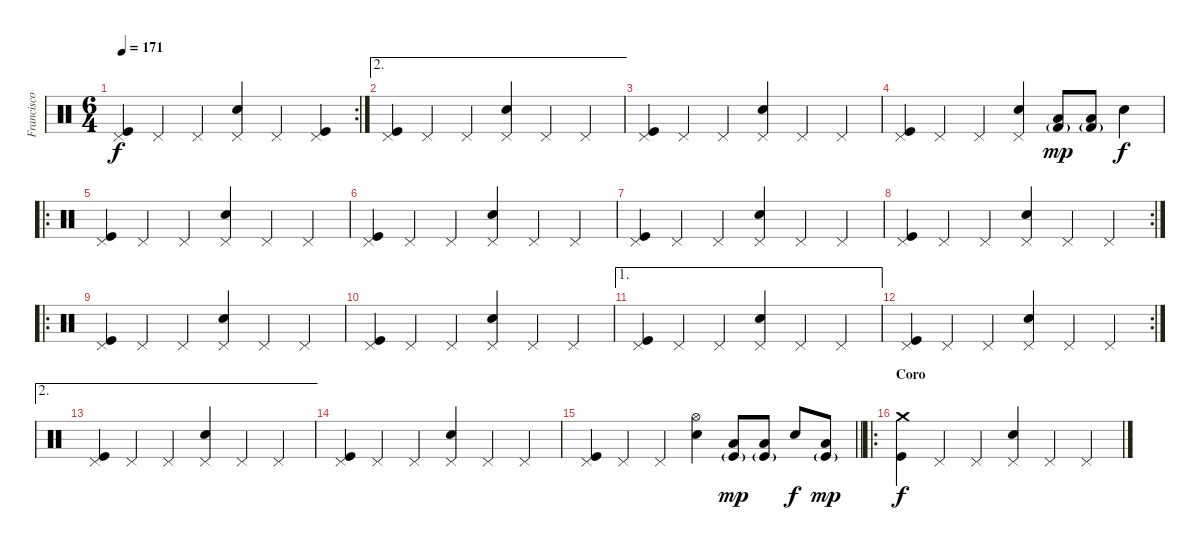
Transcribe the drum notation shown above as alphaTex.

\track ("Francisco González" "Francisco ") {instrument percussion}
\staff {score}
\articulation defaults
\rc 2
\ts (6 4)
\tempo 171
\clef neutral
\ks c
("Pedal Hi-Hat (hit)" "Kick (hit)").4{dy f} "Pedal Hi-Hat (hit)".4 "Pedal Hi-Hat (hit)".4 ("Pedal Hi-Hat (hit)" "Electric Snare (hit)").4 "Pedal Hi-Hat (hit)".4 ("Pedal Hi-Hat (hit)" "Kick (hit)").4 |
\ae 2
("Pedal Hi-Hat (hit)" "Kick (hit)").4 "Pedal Hi-Hat (hit)".4 "Pedal Hi-Hat (hit)".4 ("Pedal Hi-Hat (hit)" "Electric Snare (hit)").4 "Pedal Hi-Hat (hit)".4 "Pedal Hi-Hat (hit)".4 |
("Pedal Hi-Hat (hit)" "Kick (hit)").4 "Pedal Hi-Hat (hit)".4 "Pedal Hi-Hat (hit)".4 ("Pedal Hi-Hat (hit)" "Electric Snare (hit)").4 "Pedal Hi-Hat (hit)".4 "Pedal Hi-Hat (hit)".4 |
("Pedal Hi-Hat (hit)" "Kick (hit)").4 "Pedal Hi-Hat (hit)".4 "Pedal Hi-Hat (hit)".4 ("Pedal Hi-Hat (hit)" "Electric Snare (hit)").4 ("Low Floor Tom (hit)" "Kick (hit) 2"{g}).8{dy mp} ("Low Floor Tom (hit)" "Kick (hit) 2"{g}).8 "Electric Snare (hit)".4{dy f} |
\ro
("Pedal Hi-Hat (hit)" "Kick (hit)").4 "Pedal Hi-Hat (hit)".4 "Pedal Hi-Hat (hit)".4 ("Pedal Hi-Hat (hit)" "Electric Snare (hit)").4 "Pedal Hi-Hat (hit)".4 "Pedal Hi-Hat (hit)".4 |
("Pedal Hi-Hat (hit)" "Kick (hit)").4 "Pedal Hi-Hat (hit)".4 "Pedal Hi-Hat (hit)".4 ("Pedal Hi-Hat (hit)" "Electric Snare (hit)").4 "Pedal Hi-Hat (hit)".4 "Pedal Hi-Hat (hit)".4 |
("Pedal Hi-Hat (hit)" "Kick (hit)").4 "Pedal Hi-Hat (hit)".4 "Pedal Hi-Hat (hit)".4 ("Pedal Hi-Hat (hit)" "Electric Snare (hit)").4 "Pedal Hi-Hat (hit)".4 "Pedal Hi-Hat (hit)".4 |
\rc 2
("Pedal Hi-Hat (hit)" "Kick (hit)").4 "Pedal Hi-Hat (hit)".4 "Pedal Hi-Hat (hit)".4 ("Pedal Hi-Hat (hit)" "Electric Snare (hit)").4 "Pedal Hi-Hat (hit)".4 "Pedal Hi-Hat (hit)".4 |
\ro
("Pedal Hi-Hat (hit)" "Kick (hit)").4 "Pedal Hi-Hat (hit)".4 "Pedal Hi-Hat (hit)".4 ("Pedal Hi-Hat (hit)" "Electric Snare (hit)").4 "Pedal Hi-Hat (hit)".4 "Pedal Hi-Hat (hit)".4 |
("Pedal Hi-Hat (hit)" "Kick (hit)").4 "Pedal Hi-Hat (hit)".4 "Pedal Hi-Hat (hit)".4 ("Pedal Hi-Hat (hit)" "Electric Snare (hit)").4 "Pedal Hi-Hat (hit)".4 "Pedal Hi-Hat (hit)".4 |
\ae 1
("Pedal Hi-Hat (hit)" "Kick (hit)").4 "Pedal Hi-Hat (hit)".4 "Pedal Hi-Hat (hit)".4 ("Pedal Hi-Hat (hit)" "Electric Snare (hit)").4 "Pedal Hi-Hat (hit)".4 "Pedal Hi-Hat (hit)".4 |
\rc 2
("Pedal Hi-Hat (hit)" "Kick (hit)").4 "Pedal Hi-Hat (hit)".4 "Pedal Hi-Hat (hit)".4 ("Pedal Hi-Hat (hit)" "Electric Snare (hit)").4 "Pedal Hi-Hat (hit)".4 "Pedal Hi-Hat (hit)".4 |
\ae 2
("Pedal Hi-Hat (hit)" "Kick (hit)").4 "Pedal Hi-Hat (hit)".4 "Pedal Hi-Hat (hit)".4 ("Pedal Hi-Hat (hit)" "Electric Snare (hit)").4 "Pedal Hi-Hat (hit)".4 "Pedal Hi-Hat (hit)".4 |
("Pedal Hi-Hat (hit)" "Kick (hit)").4 "Pedal Hi-Hat (hit)".4 "Pedal Hi-Hat (hit)".4 ("Pedal Hi-Hat (hit)" "Electric Snare (hit)").4 "Pedal Hi-Hat (hit)".4 "Pedal Hi-Hat (hit)".4 |
\barLineRight lightlight
("Pedal Hi-Hat (hit)" "Kick (hit)").4 "Pedal Hi-Hat (hit)".4 "Pedal Hi-Hat (hit)".4 ("Hi-Hat (open)" "Electric Snare (hit)").4 ("Low Floor Tom (hit)" "Kick (hit)"{g}).8{dy mp} ("Low Floor Tom (hit)" "Kick (hit)"{g}).8 "Electric Snare (hit)".8{dy f} ("Low Floor Tom (hit)" "Kick (hit)"{g}).8{dy mp} |
\ro
\section ("" "Coro")
("Crash medium (hit)" "Kick (hit)").4{dy f} "Pedal Hi-Hat (hit)".4 "Pedal Hi-Hat (hit)".4 ("Pedal Hi-Hat (hit)" "Electric Snare (hit)").4 "Pedal Hi-Hat (hit)".4 "Pedal Hi-Hat (hit)".4
